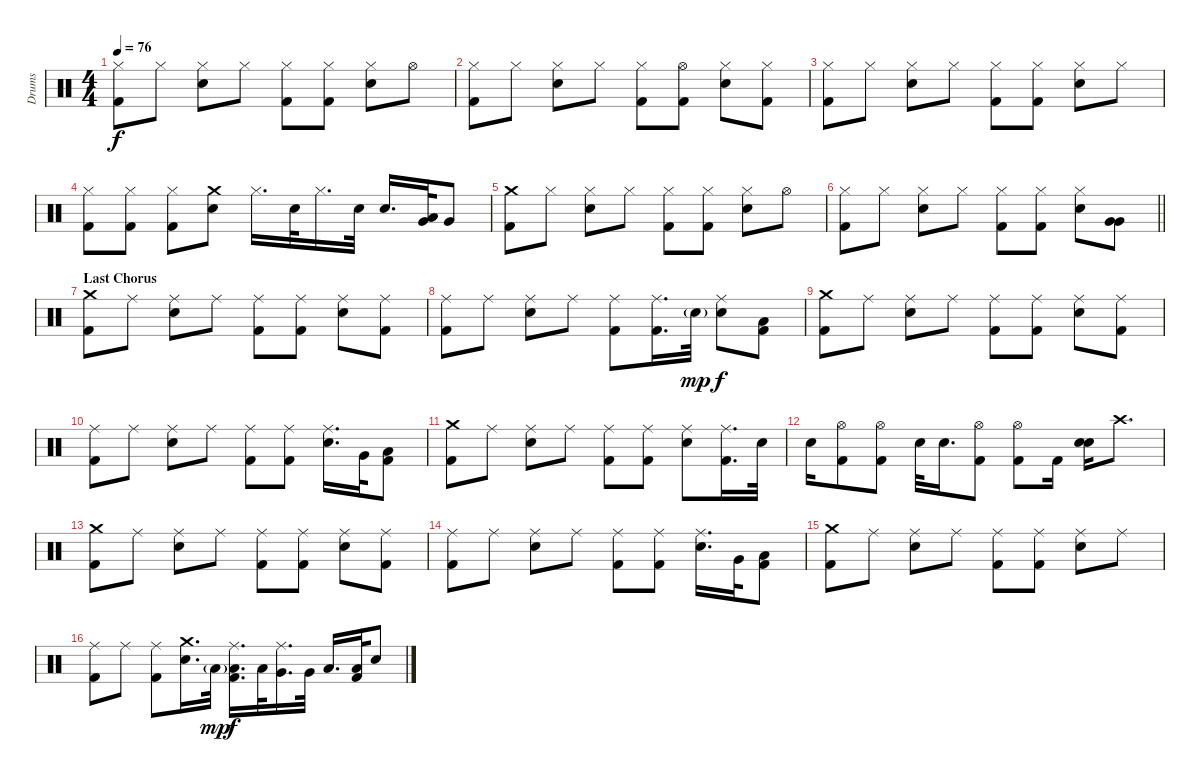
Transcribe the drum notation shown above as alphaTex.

\track ("Drums" "Drums") {instrument percussion}
\staff {score}
\articulation defaults
\ts (4 4)
\tempo 76
\clef neutral
\ks aminor
("Hi-Hat (closed)" "Kick (hit) 2").8{dy f} "Hi-Hat (closed)".8 ("Hi-Hat (closed)" "Electric Snare (hit)").8 "Hi-Hat (closed)".8 ("Hi-Hat (closed)" "Kick (hit) 2").8 ("Hi-Hat (closed)" "Kick (hit) 2").8 ("Hi-Hat (closed)" "Electric Snare (hit)").8 "Hi-Hat (open)".8 |
("Hi-Hat (closed)" "Kick (hit) 2").8 "Hi-Hat (closed)".8 ("Hi-Hat (closed)" "Electric Snare (hit)").8 "Hi-Hat (closed)".8 ("Hi-Hat (closed)" "Kick (hit) 2").8 ("Hi-Hat (open)" "Kick (hit) 2").8 ("Hi-Hat (closed)" "Electric Snare (hit)").8 ("Hi-Hat (closed)" "Kick (hit) 2").8 |
("Hi-Hat (closed)" "Kick (hit) 2").8 "Hi-Hat (closed)".8 ("Hi-Hat (closed)" "Electric Snare (hit)").8 "Hi-Hat (closed)".8 ("Hi-Hat (closed)" "Kick (hit) 2").8 ("Hi-Hat (closed)" "Kick (hit) 2").8 ("Hi-Hat (closed)" "Electric Snare (hit)").8 "Hi-Hat (closed)".8 |
("Hi-Hat (closed)" "Kick (hit) 2").8 ("Hi-Hat (closed)" "Kick (hit) 2").8 ("Hi-Hat (closed)" "Kick (hit) 2").8 ("Crash medium (hit)" "Electric Snare (hit)").8 "Hi-Hat (closed)".16{d} "Electric Snare (hit)".32 "Hi-Hat (closed)".16{d} "Electric Snare (hit)".32 "Electric Snare (hit)".16{d} ("Very Low Tom (hit)" "Low Floor Tom (hit)").32 "Very Low Tom (hit)".8 |
("Crash medium (hit)" "Kick (hit) 2").8 "Hi-Hat (closed)".8 ("Hi-Hat (closed)" "Electric Snare (hit)").8 "Hi-Hat (closed)".8 ("Hi-Hat (closed)" "Kick (hit) 2").8 ("Hi-Hat (closed)" "Kick (hit) 2").8 ("Hi-Hat (closed)" "Electric Snare (hit)").8 "Hi-Hat (open)".8 |
\barLineRight lightlight
("Hi-Hat (closed)" "Kick (hit) 2").8 "Hi-Hat (closed)".8 ("Hi-Hat (closed)" "Electric Snare (hit)").8 "Hi-Hat (closed)".8 ("Hi-Hat (closed)" "Kick (hit) 2").8 ("Hi-Hat (closed)" "Kick (hit) 2").8 ("Hi-Hat (closed)" "Electric Snare (hit)").8 ("Very Low Tom (hit)" "Very Low Tom (hit)").8 |
\section ("" "Last Chorus")
("Crash medium (hit)" "Kick (hit) 2").8 "Ride (middle)".8 ("Ride (middle)" "Electric Snare (hit)").8 "Ride (middle)".8 ("Ride (middle)" "Kick (hit) 2").8 ("Ride (middle)" "Kick (hit) 2").8 ("Ride (middle)" "Electric Snare (hit)").8 ("Ride (middle)" "Kick (hit) 2").8 |
("Ride (middle)" "Kick (hit) 2").8 "Ride (middle)".8 ("Ride (middle)" "Electric Snare (hit)").8 "Ride (middle)".8 ("Ride (middle)" "Kick (hit) 2").8 ("Ride (middle)" "Kick (hit) 2").16{d} "Electric Snare (hit)"{g}.32{dy mp} ("Ride (middle)" "Electric Snare (hit)").8{dy f} ("Low Floor Tom (hit)" "Kick (hit) 2").8 |
("Crash medium (hit)" "Kick (hit) 2").8 "Ride (middle)".8 ("Ride (middle)" "Electric Snare (hit)").8 "Ride (middle)".8 ("Ride (middle)" "Kick (hit) 2").8 ("Ride (middle)" "Kick (hit) 2").8 ("Ride (middle)" "Electric Snare (hit)").8 ("Ride (middle)" "Kick (hit) 2").8 |
("Ride (middle)" "Kick (hit) 2").8 "Ride (middle)".8 ("Ride (middle)" "Electric Snare (hit)").8 "Ride (middle)".8 ("Ride (middle)" "Kick (hit) 2").8 ("Ride (middle)" "Kick (hit) 2").8 ("Ride (middle)" "Electric Snare (hit)").16{d} "Very Low Tom (hit)".32 ("Low Floor Tom (hit)" "Kick (hit) 2").8 |
("Crash medium (hit)" "Kick (hit) 2").8 "Ride (middle)".8 ("Ride (middle)" "Electric Snare (hit)").8 "Ride (middle)".8 ("Ride (middle)" "Kick (hit) 2").8 ("Ride (middle)" "Kick (hit) 2").8 ("Ride (middle)" "Electric Snare (hit)").8 ("Ride (middle)" "Kick (hit) 2").16{d} "Electric Snare (hit)".32 |
"Electric Snare (hit)".16 ("Hi-Hat (open)" "Kick (hit) 2").8 ("Hi-Hat (open)" "Kick (hit) 2").8 "Electric Snare (hit)".32 "Electric Snare (hit)".16{d} ("Hi-Hat (open)" "Kick (hit) 2").8 ("Hi-Hat (open)" "Kick (hit) 2").8 "Kick (hit) 2".16 ("Electric Snare (hit)" "Electric Snare (hit)").16 "Crash high (hit)".8{d} |
("Crash medium (hit)" "Kick (hit) 2").8 "Ride (middle)".8 ("Ride (middle)" "Electric Snare (hit)").8 "Ride (middle)".8 ("Ride (middle)" "Kick (hit) 2").8 ("Ride (middle)" "Kick (hit) 2").8 ("Ride (middle)" "Electric Snare (hit)").8 ("Ride (middle)" "Kick (hit) 2").8 |
("Ride (middle)" "Kick (hit) 2").8 "Ride (middle)".8 ("Ride (middle)" "Electric Snare (hit)").8 "Ride (middle)".8 ("Ride (middle)" "Kick (hit) 2").8 ("Ride (middle)" "Kick (hit) 2").8 ("Ride (middle)" "Electric Snare (hit)").16{d} "Very Low Tom (hit)".32 ("Low Floor Tom (hit)" "Kick (hit) 2").8 |
("Crash medium (hit)" "Kick (hit) 2").8 "Ride (middle)".8 ("Ride (middle)" "Electric Snare (hit)").8 "Ride (middle)".8 ("Ride (middle)" "Kick (hit) 2").8 ("Ride (middle)" "Kick (hit) 2").8 ("Ride (middle)" "Electric Snare (hit)").8 "Ride (middle)".8 |
("Ride (middle)" "Kick (hit) 2").8 "Ride (middle)".8 ("Ride (middle)" "Kick (hit) 2").8 ("Crash medium (hit)" "Electric Snare (hit)").16{d} "Low Tom (hit)"{g}.32{dy mp} ("Ride (middle)" "Low Tom (hit)" "Kick (hit) 2").16{d dy f} "Low Tom (hit)".32 ("Ride (middle)" "Very Low Tom (hit)").16{d} "Very Low Tom (hit)".32 "Low Floor Tom (hit)".16{d} ("Low Floor Tom (hit)" "Kick (hit) 2").32 "Electric Snare (hit)".8
